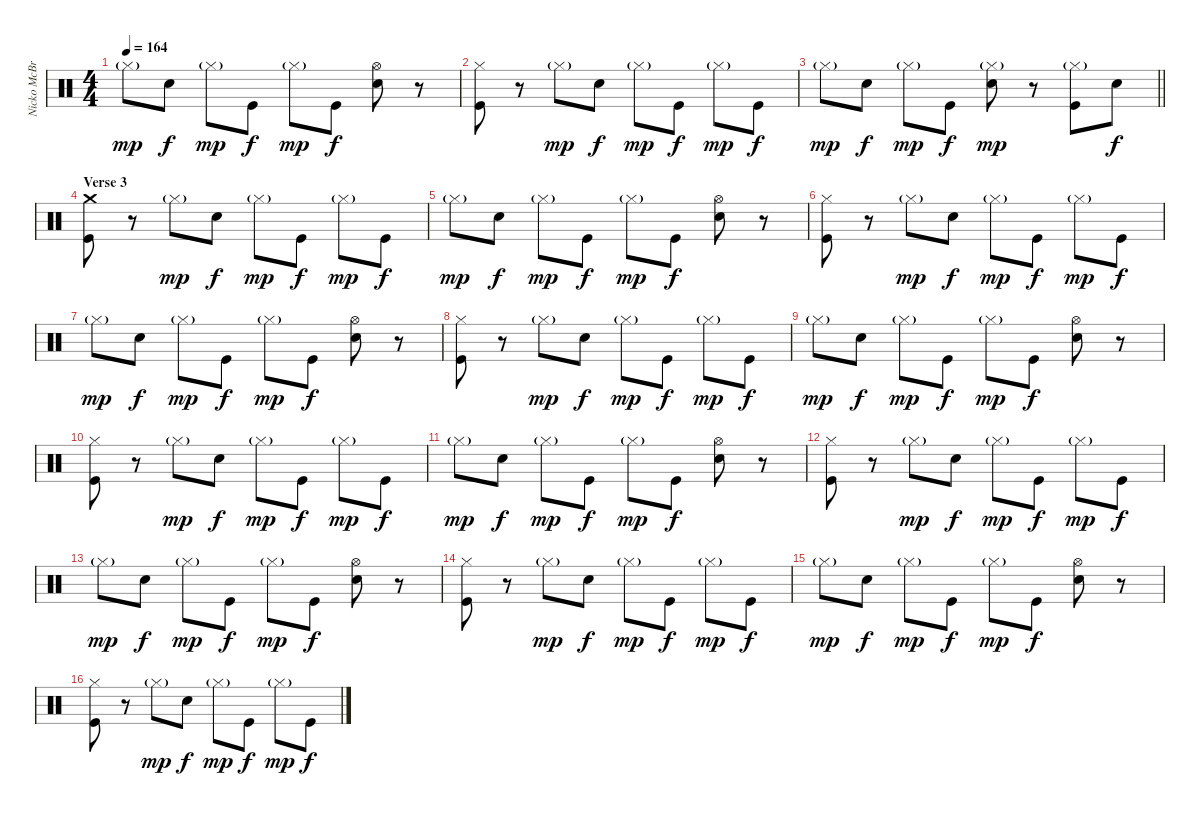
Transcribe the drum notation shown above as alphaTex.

\track ("Nicko McBrain" "Nicko McBr") {instrument percussion}
\staff {score}
\articulation defaults
\ts (4 4)
\tempo 164
\clef neutral
\ks c "Hi-Hat (closed)"{g}.8{dy mp} "Electric Snare (hit)".8{dy f} "Hi-Hat (closed)"{g}.8{dy mp} "Kick (hit)".8{dy f} "Hi-Hat (closed)"{g}.8{dy mp} "Kick (hit)".8{dy f}
("Hi-Hat (open)" "Electric Snare (hit)").8 r.8 |
("Hi-Hat (closed)" "Kick (hit)").8 r.8 "Hi-Hat (closed)"{g}.8{dy mp} "Electric Snare (hit)".8{dy f} "Hi-Hat (closed)"{g}.8{dy mp} "Kick (hit)".8{dy f} "Hi-Hat (closed)"{g}.8{dy mp} "Kick (hit)".8{dy f} |
\barLineRight lightlight "Hi-Hat (closed)"{g}.8{dy mp} "Electric Snare (hit)".8{dy f} "Hi-Hat (closed)"{g}.8{dy mp} "Kick (hit)".8{dy f}
("Hi-Hat (closed)"{g} "Electric Snare (hit)").8{dy mp} r.8 ("Hi-Hat (closed)"{g} "Kick (hit)").8 "Electric Snare (hit)".8{dy f} |
\section ("" "Verse 3")
("Crash medium (hit)" "Kick (hit)").8 r.8 "Hi-Hat (closed)"{g}.8{dy mp} "Electric Snare (hit)".8{dy f} "Hi-Hat (closed)"{g}.8{dy mp} "Kick (hit)".8{dy f} "Hi-Hat (closed)"{g}.8{dy mp} "Kick (hit)".8{dy f} |
"Hi-Hat (closed)"{g}.8{dy mp} "Electric Snare (hit)".8{dy f} "Hi-Hat (closed)"{g}.8{dy mp} "Kick (hit)".8{dy f} "Hi-Hat (closed)"{g}.8{dy mp} "Kick (hit)".8{dy f} ("Hi-Hat (open)" "Electric Snare (hit)").8 r.8 |
("Hi-Hat (closed)" "Kick (hit)").8 r.8 "Hi-Hat (closed)"{g}.8{dy mp} "Electric Snare (hit)".8{dy f} "Hi-Hat (closed)"{g}.8{dy mp} "Kick (hit)".8{dy f} "Hi-Hat (closed)"{g}.8{dy mp} "Kick (hit)".8{dy f} |
"Hi-Hat (closed)"{g}.8{dy mp} "Electric Snare (hit)".8{dy f} "Hi-Hat (closed)"{g}.8{dy mp} "Kick (hit)".8{dy f} "Hi-Hat (closed)"{g}.8{dy mp} "Kick (hit)".8{dy f} ("Hi-Hat (open)" "Electric Snare (hit)").8 r.8 |
("Hi-Hat (closed)" "Kick (hit)").8 r.8 "Hi-Hat (closed)"{g}.8{dy mp} "Electric Snare (hit)".8{dy f} "Hi-Hat (closed)"{g}.8{dy mp} "Kick (hit)".8{dy f} "Hi-Hat (closed)"{g}.8{dy mp} "Kick (hit)".8{dy f} |
"Hi-Hat (closed)"{g}.8{dy mp} "Electric Snare (hit)".8{dy f} "Hi-Hat (closed)"{g}.8{dy mp} "Kick (hit)".8{dy f} "Hi-Hat (closed)"{g}.8{dy mp} "Kick (hit)".8{dy f} ("Hi-Hat (open)" "Electric Snare (hit)").8 r.8 |
("Hi-Hat (closed)" "Kick (hit)").8 r.8 "Hi-Hat (closed)"{g}.8{dy mp} "Electric Snare (hit)".8{dy f} "Hi-Hat (closed)"{g}.8{dy mp} "Kick (hit)".8{dy f} "Hi-Hat (closed)"{g}.8{dy mp} "Kick (hit)".8{dy f} |
"Hi-Hat (closed)"{g}.8{dy mp} "Electric Snare (hit)".8{dy f} "Hi-Hat (closed)"{g}.8{dy mp} "Kick (hit)".8{dy f} "Hi-Hat (closed)"{g}.8{dy mp} "Kick (hit)".8{dy f} ("Hi-Hat (open)" "Electric Snare (hit)").8 r.8 |
("Hi-Hat (closed)" "Kick (hit)").8 r.8 "Hi-Hat (closed)"{g}.8{dy mp} "Electric Snare (hit)".8{dy f} "Hi-Hat (closed)"{g}.8{dy mp} "Kick (hit)".8{dy f} "Hi-Hat (closed)"{g}.8{dy mp} "Kick (hit)".8{dy f} |
"Hi-Hat (closed)"{g}.8{dy mp} "Electric Snare (hit)".8{dy f} "Hi-Hat (closed)"{g}.8{dy mp} "Kick (hit)".8{dy f} "Hi-Hat (closed)"{g}.8{dy mp} "Kick (hit)".8{dy f} ("Hi-Hat (open)" "Electric Snare (hit)").8 r.8 |
("Hi-Hat (closed)" "Kick (hit)").8 r.8 "Hi-Hat (closed)"{g}.8{dy mp} "Electric Snare (hit)".8{dy f} "Hi-Hat (closed)"{g}.8{dy mp} "Kick (hit)".8{dy f} "Hi-Hat (closed)"{g}.8{dy mp} "Kick (hit)".8{dy f} |
"Hi-Hat (closed)"{g}.8{dy mp} "Electric Snare (hit)".8{dy f} "Hi-Hat (closed)"{g}.8{dy mp} "Kick (hit)".8{dy f} "Hi-Hat (closed)"{g}.8{dy mp} "Kick (hit)".8{dy f} ("Hi-Hat (open)" "Electric Snare (hit)").8 r.8 |
("Hi-Hat (closed)" "Kick (hit)").8 r.8 "Hi-Hat (closed)"{g}.8{dy mp} "Electric Snare (hit)".8{dy f} "Hi-Hat (closed)"{g}.8{dy mp} "Kick (hit)".8{dy f} "Hi-Hat (closed)"{g}.8{dy mp} "Kick (hit)".8{dy f}
